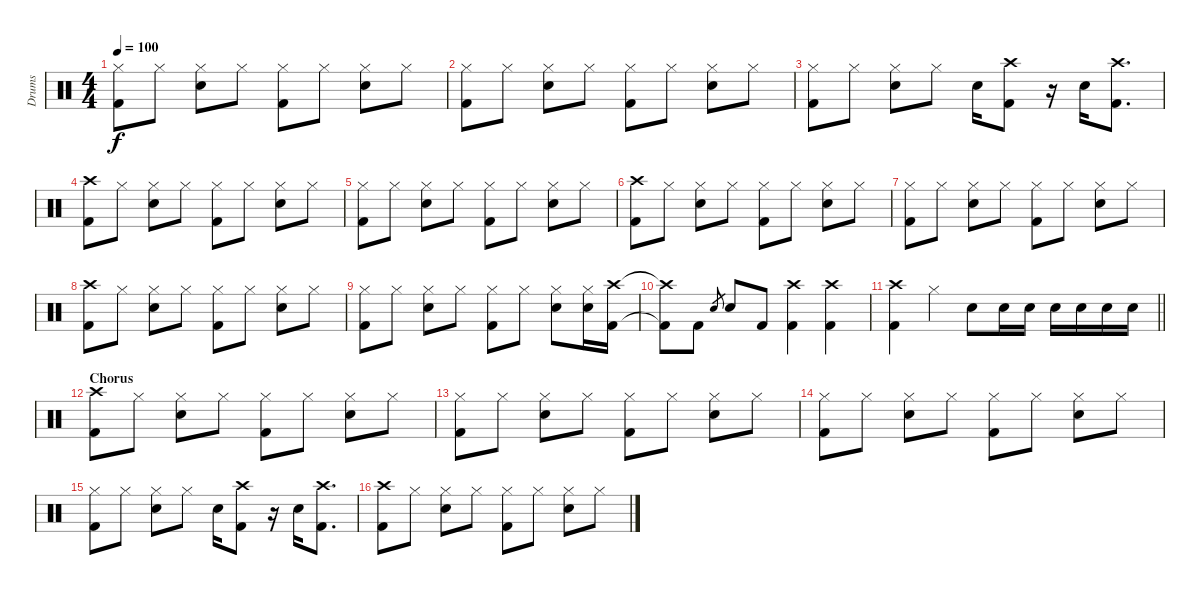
\track ("Drums" "Drums") {instrument percussion}
\staff {score}
\articulation defaults
\ts (4 4)
\tempo 100
\clef neutral
\ks c
("Hi-Hat (closed)" "Kick (hit) 2").8{dy f} "Hi-Hat (closed)".8 ("Hi-Hat (closed)" "Snare (hit) 2").8 "Hi-Hat (closed)".8 ("Hi-Hat (closed)" "Kick (hit) 2").8 "Hi-Hat (closed)".8 ("Hi-Hat (closed)" "Snare (hit) 2").8 "Hi-Hat (closed)".8 |
("Hi-Hat (closed)" "Kick (hit) 2").8 "Hi-Hat (closed)".8 ("Hi-Hat (closed)" "Snare (hit) 2").8 "Hi-Hat (closed)".8 ("Hi-Hat (closed)" "Kick (hit) 2").8 "Hi-Hat (closed)".8 ("Hi-Hat (closed)" "Snare (hit) 2").8 "Hi-Hat (closed)".8 |
("Hi-Hat (closed)" "Kick (hit) 2").8 "Hi-Hat (closed)".8 ("Hi-Hat (closed)" "Snare (hit) 2").8 "Hi-Hat (closed)".8 "Snare (hit) 2".16 ("Crash high (hit)" "Kick (hit) 2").8 r.16 "Snare (hit) 2".16 ("Crash high (hit)" "Kick (hit) 2").8{d} |
("Crash high (hit)" "Kick (hit) 2").8 "Hi-Hat (closed)".8 ("Hi-Hat (closed)" "Snare (hit) 2").8 "Hi-Hat (closed)".8 ("Hi-Hat (closed)" "Kick (hit) 2").8 "Hi-Hat (closed)".8 ("Hi-Hat (closed)" "Snare (hit) 2").8 "Hi-Hat (closed)".8 |
("Hi-Hat (closed)" "Kick (hit) 2").8 "Hi-Hat (closed)".8 ("Hi-Hat (closed)" "Snare (hit) 2").8 "Hi-Hat (closed)".8 ("Hi-Hat (closed)" "Kick (hit) 2").8 "Hi-Hat (closed)".8 ("Hi-Hat (closed)" "Snare (hit) 2").8 "Hi-Hat (closed)".8 |
("Crash high (hit)" "Kick (hit) 2").8 "Hi-Hat (closed)".8 ("Hi-Hat (closed)" "Snare (hit) 2").8 "Hi-Hat (closed)".8 ("Hi-Hat (closed)" "Kick (hit) 2").8 "Hi-Hat (closed)".8 ("Hi-Hat (closed)" "Snare (hit) 2").8 "Hi-Hat (closed)".8 |
("Hi-Hat (closed)" "Kick (hit) 2").8 "Hi-Hat (closed)".8 ("Hi-Hat (closed)" "Snare (hit) 2").8 "Hi-Hat (closed)".8 ("Hi-Hat (closed)" "Kick (hit) 2").8 "Hi-Hat (closed)".8 ("Hi-Hat (closed)" "Snare (hit) 2").8 "Hi-Hat (closed)".8 |
("Crash high (hit)" "Kick (hit) 2").8 "Hi-Hat (closed)".8 ("Hi-Hat (closed)" "Snare (hit) 2").8 "Hi-Hat (closed)".8 ("Hi-Hat (closed)" "Kick (hit) 2").8 "Hi-Hat (closed)".8 ("Hi-Hat (closed)" "Snare (hit) 2").8 "Hi-Hat (closed)".8 |
("Hi-Hat (closed)" "Kick (hit) 2").8 "Hi-Hat (closed)".8 ("Hi-Hat (closed)" "Snare (hit) 2").8 "Hi-Hat (closed)".8 ("Hi-Hat (closed)" "Kick (hit) 2").8 "Hi-Hat (closed)".8 ("Hi-Hat (closed)" "Snare (hit) 2").8 ("Hi-Hat (closed)" "Snare (hit) 2").16 ("Kick (hit) 2" "Crash high (hit)").16 |
("Kick (hit) 2"{t} "Crash high (hit)"{t}).8 "Kick (hit) 2".8 "Snare (hit) 2".8{gr} "Snare (hit) 2".8 "Kick (hit) 2".8 ("Kick (hit) 2" "Crash high (hit)").4 ("Kick (hit) 2" "Crash high (hit)").4 |
\barLineRight lightlight
("Kick (hit) 2" "Crash high (hit)").4 "Hi-Hat (closed)".4 "Snare (hit) 2".8 "Snare (hit) 2".16 "Snare (hit) 2".16 "Snare (hit) 2".16 "Snare (hit) 2".16 "Snare (hit) 2".16 "Snare (hit) 2".16 |
\section ("" "Chorus")
("Crash high (hit)" "Kick (hit) 2").8 "Hi-Hat (closed)".8 ("Hi-Hat (closed)" "Snare (hit) 2").8 "Hi-Hat (closed)".8 ("Hi-Hat (closed)" "Kick (hit) 2").8 "Hi-Hat (closed)".8 ("Hi-Hat (closed)" "Snare (hit) 2").8 "Hi-Hat (closed)".8 |
("Hi-Hat (closed)" "Kick (hit) 2").8 "Hi-Hat (closed)".8 ("Hi-Hat (closed)" "Snare (hit) 2").8 "Hi-Hat (closed)".8 ("Hi-Hat (closed)" "Kick (hit) 2").8 "Hi-Hat (closed)".8 ("Hi-Hat (closed)" "Snare (hit) 2").8 "Hi-Hat (closed)".8 |
("Hi-Hat (closed)" "Kick (hit) 2").8 "Hi-Hat (closed)".8 ("Hi-Hat (closed)" "Snare (hit) 2").8 "Hi-Hat (closed)".8 ("Hi-Hat (closed)" "Kick (hit) 2").8 "Hi-Hat (closed)".8 ("Hi-Hat (closed)" "Snare (hit) 2").8 "Hi-Hat (closed)".8 |
("Hi-Hat (closed)" "Kick (hit) 2").8 "Hi-Hat (closed)".8 ("Hi-Hat (closed)" "Snare (hit) 2").8 "Hi-Hat (closed)".8 "Snare (hit) 2".16 ("Crash high (hit)" "Kick (hit) 2").8 r.16 "Snare (hit) 2".16 ("Crash high (hit)" "Kick (hit) 2").8{d} |
("Crash high (hit)" "Kick (hit) 2").8 "Hi-Hat (closed)".8 ("Hi-Hat (closed)" "Snare (hit) 2").8 "Hi-Hat (closed)".8 ("Hi-Hat (closed)" "Kick (hit) 2").8 "Hi-Hat (closed)".8 ("Hi-Hat (closed)" "Snare (hit) 2").8 "Hi-Hat (closed)".8
